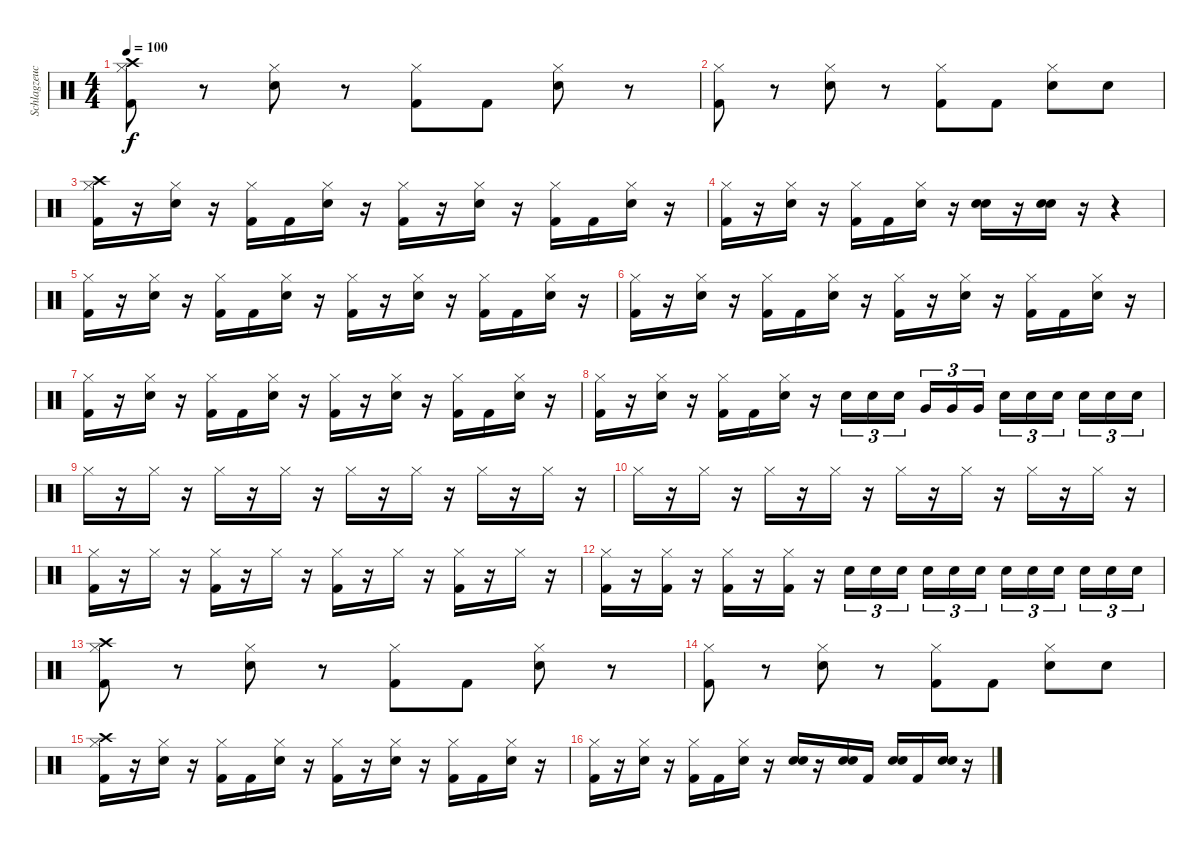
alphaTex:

\track ("Schlagzeuch" "Schlagzeuc") {instrument percussion}
\staff {score}
\articulation defaults
\ts (4 4)
\tempo 100
\clef neutral
\ks c
("Hi-Hat (closed)" "Kick (hit) 2" "Crash high (hit)").8{dy f} r.8 ("Hi-Hat (closed)" "Snare (hit) 2").8 r.8 ("Hi-Hat (closed)" "Kick (hit) 2").8 "Kick (hit) 2".8 ("Hi-Hat (closed)" "Snare (hit) 2").8 r.8 |
("Hi-Hat (closed)" "Kick (hit) 2").8 r.8 ("Hi-Hat (closed)" "Snare (hit) 2").8 r.8 ("Hi-Hat (closed)" "Kick (hit) 2").8 "Kick (hit) 2".8 ("Hi-Hat (closed)" "Snare (hit) 2").8 "Snare (hit) 2".8 |
("Hi-Hat (closed)" "Kick (hit) 2" "Crash high (hit)").16 r.16 ("Hi-Hat (closed)" "Snare (hit) 2").16 r.16 ("Hi-Hat (closed)" "Kick (hit) 2").16 "Kick (hit) 2".16 ("Hi-Hat (closed)" "Snare (hit) 2").16 r.16 ("Hi-Hat (closed)" "Kick (hit) 2").16 r.16 ("Hi-Hat (closed)" "Snare (hit) 2").16 r.16 ("Hi-Hat (closed)" "Kick (hit) 2").16 "Kick (hit) 2".16 ("Hi-Hat (closed)" "Snare (hit) 2").16 r.16 |
("Hi-Hat (closed)" "Kick (hit) 2").16 r.16 ("Hi-Hat (closed)" "Snare (hit) 2").16 r.16 ("Hi-Hat (closed)" "Kick (hit) 2").16 "Kick (hit) 2".16 ("Hi-Hat (closed)" "Snare (hit) 2").16 r.16 ("Snare (hit) 2" "Snare (hit) 2").16 r.16 ("Snare (hit) 2" "Snare (hit) 2").16 r.16 r.4 |
("Hi-Hat (closed)" "Kick (hit) 2").16 r.16 ("Hi-Hat (closed)" "Snare (hit) 2").16 r.16 ("Hi-Hat (closed)" "Kick (hit) 2").16 "Kick (hit) 2".16 ("Hi-Hat (closed)" "Snare (hit) 2").16 r.16 ("Hi-Hat (closed)" "Kick (hit) 2").16 r.16 ("Hi-Hat (closed)" "Snare (hit) 2").16 r.16 ("Hi-Hat (closed)" "Kick (hit) 2").16 "Kick (hit) 2".16 ("Hi-Hat (closed)" "Snare (hit) 2").16 r.16 |
("Hi-Hat (closed)" "Kick (hit) 2").16 r.16 ("Hi-Hat (closed)" "Snare (hit) 2").16 r.16 ("Hi-Hat (closed)" "Kick (hit) 2").16 "Kick (hit) 2".16 ("Hi-Hat (closed)" "Snare (hit) 2").16 r.16 ("Hi-Hat (closed)" "Kick (hit) 2").16 r.16 ("Hi-Hat (closed)" "Snare (hit) 2").16 r.16 ("Hi-Hat (closed)" "Kick (hit) 2").16 "Kick (hit) 2".16 ("Hi-Hat (closed)" "Snare (hit) 2").16 r.16 |
("Hi-Hat (closed)" "Kick (hit) 2").16 r.16 ("Hi-Hat (closed)" "Snare (hit) 2").16 r.16 ("Hi-Hat (closed)" "Kick (hit) 2").16 "Kick (hit) 2".16 ("Hi-Hat (closed)" "Snare (hit) 2").16 r.16 ("Hi-Hat (closed)" "Kick (hit) 2").16 r.16 ("Hi-Hat (closed)" "Snare (hit) 2").16 r.16 ("Hi-Hat (closed)" "Kick (hit) 2").16 "Kick (hit) 2".16 ("Hi-Hat (closed)" "Snare (hit) 2").16 r.16 |
("Hi-Hat (closed)" "Kick (hit) 2").16 r.16 ("Hi-Hat (closed)" "Snare (hit) 2").16 r.16 ("Hi-Hat (closed)" "Kick (hit) 2").16 "Kick (hit) 2".16 ("Hi-Hat (closed)" "Snare (hit) 2").16 r.16 "Snare (hit) 2".16{tu (3 2)} "Snare (hit) 2".16{tu (3 2)} "Snare (hit) 2".16{tu (3 2) beam splitsecondary} "Very Low Tom (hit)".16{tu (3 2)} "Very Low Tom (hit)".16{tu (3 2)} "Very Low Tom (hit)".16{tu (3 2)} "Snare (hit) 2".16{tu (3 2)} "Snare (hit) 2".16{tu (3 2)} "Snare (hit) 2".16{tu (3 2) beam splitsecondary} "Snare (hit) 2".16{tu (3 2)} "Snare (hit) 2".16{tu (3 2)} "Snare (hit) 2".16{tu (3 2)} |
"Hi-Hat (closed)".16 r.16 "Hi-Hat (closed)".16 r.16 "Hi-Hat (closed)".16 r.16 "Hi-Hat (closed)".16 r.16 "Hi-Hat (closed)".16 r.16 "Hi-Hat (closed)".16 r.16 "Hi-Hat (closed)".16 r.16 "Hi-Hat (closed)".16 r.16 |
"Hi-Hat (closed)".16 r.16 "Hi-Hat (closed)".16 r.16 "Hi-Hat (closed)".16 r.16 "Hi-Hat (closed)".16 r.16 "Hi-Hat (closed)".16 r.16 "Hi-Hat (closed)".16 r.16 "Hi-Hat (closed)".16 r.16 "Hi-Hat (closed)".16 r.16 |
("Hi-Hat (closed)" "Kick (hit) 2").16 r.16 "Hi-Hat (closed)".16 r.16 ("Hi-Hat (closed)" "Kick (hit) 2").16 r.16 "Hi-Hat (closed)".16 r.16 ("Hi-Hat (closed)" "Kick (hit) 2").16 r.16 "Hi-Hat (closed)".16 r.16 ("Hi-Hat (closed)" "Kick (hit) 2").16 r.16 "Hi-Hat (closed)".16 r.16 |
("Hi-Hat (closed)" "Kick (hit) 2").16 r.16 ("Hi-Hat (closed)" "Kick (hit) 2").16 r.16 ("Hi-Hat (closed)" "Kick (hit) 2").16 r.16 ("Hi-Hat (closed)" "Kick (hit) 2").16 r.16 "Snare (hit) 2".16{tu (3 2)} "Snare (hit) 2".16{tu (3 2)} "Snare (hit) 2".16{tu (3 2) beam splitsecondary} "Snare (hit) 2".16{tu (3 2)} "Snare (hit) 2".16{tu (3 2)} "Snare (hit) 2".16{tu (3 2)} "Snare (hit) 2".16{tu (3 2)} "Snare (hit) 2".16{tu (3 2)} "Snare (hit) 2".16{tu (3 2) beam splitsecondary} "Snare (hit) 2".16{tu (3 2)} "Snare (hit) 2".16{tu (3 2)} "Snare (hit) 2".16{tu (3 2)} |
("Hi-Hat (closed)" "Kick (hit) 2" "Crash high (hit)").8 r.8 ("Hi-Hat (closed)" "Snare (hit) 2").8 r.8 ("Hi-Hat (closed)" "Kick (hit) 2").8 "Kick (hit) 2".8 ("Hi-Hat (closed)" "Snare (hit) 2").8 r.8 |
("Hi-Hat (closed)" "Kick (hit) 2").8 r.8 ("Hi-Hat (closed)" "Snare (hit) 2").8 r.8 ("Hi-Hat (closed)" "Kick (hit) 2").8 "Kick (hit) 2".8 ("Hi-Hat (closed)" "Snare (hit) 2").8 "Snare (hit) 2".8 |
("Hi-Hat (closed)" "Kick (hit) 2" "Crash high (hit)").16 r.16 ("Hi-Hat (closed)" "Snare (hit) 2").16 r.16 ("Hi-Hat (closed)" "Kick (hit) 2").16 "Kick (hit) 2".16 ("Hi-Hat (closed)" "Snare (hit) 2").16 r.16 ("Hi-Hat (closed)" "Kick (hit) 2").16 r.16 ("Hi-Hat (closed)" "Snare (hit) 2").16 r.16 ("Hi-Hat (closed)" "Kick (hit) 2").16 "Kick (hit) 2".16 ("Hi-Hat (closed)" "Snare (hit) 2").16 r.16 |
("Hi-Hat (closed)" "Kick (hit) 2").16 r.16 ("Hi-Hat (closed)" "Snare (hit) 2").16 r.16 ("Hi-Hat (closed)" "Kick (hit) 2").16 "Kick (hit) 2".16 ("Hi-Hat (closed)" "Snare (hit) 2").16 r.16 ("Snare (hit) 2" "Snare (hit) 2").16 r.16 ("Snare (hit) 2" "Snare (hit) 2").16 "Kick (hit) 2".16 ("Snare (hit) 2" "Snare (hit) 2").16 "Kick (hit) 2".16 ("Snare (hit) 2" "Snare (hit) 2").16 r.16
